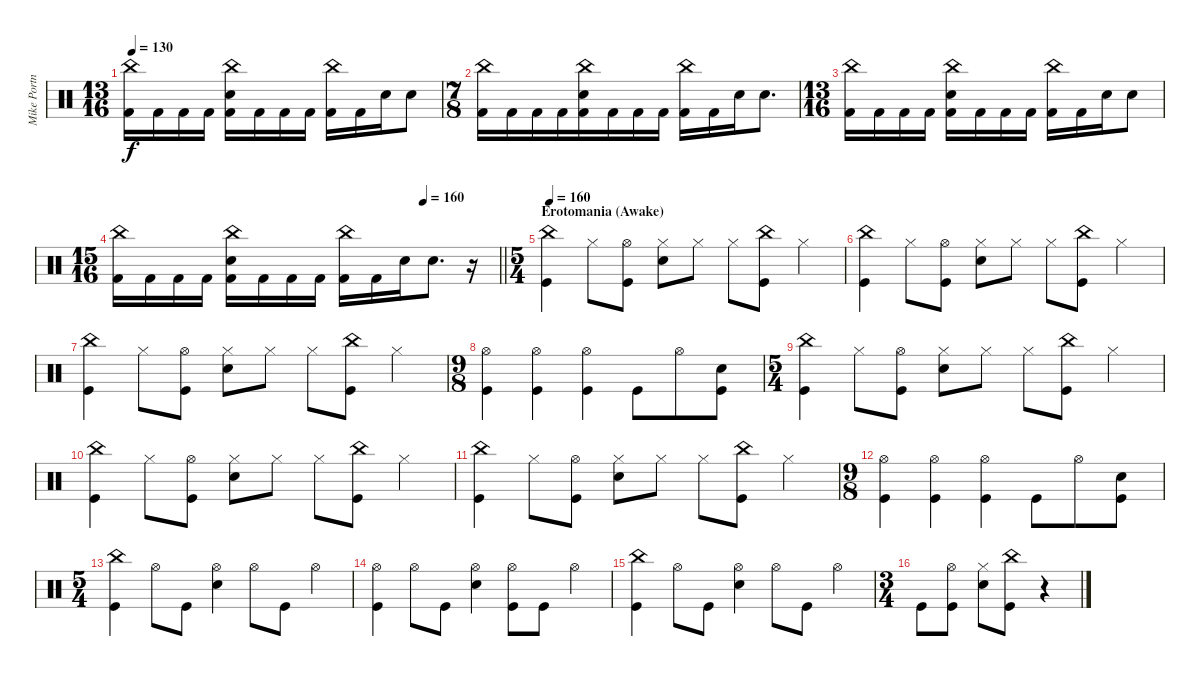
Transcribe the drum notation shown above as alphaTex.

\track ("Mike Portnoy Drums" "Mike Portn") {instrument percussion}
\staff {score}
\articulation defaults
\ts (13 16)
\tempo 130
\clef neutral
\ks c
("China (hit)" "Kick (hit) 2").16{dy f} "Kick (hit) 2".16 "Kick (hit) 2".16 "Kick (hit) 2".16 ("China (hit)" "Electric Snare (hit)" "Kick (hit) 2").16 "Kick (hit) 2".16 "Kick (hit) 2".16 "Kick (hit) 2".16 ("China (hit)" "Kick (hit) 2").16 "Kick (hit) 2".16 "Electric Snare (hit)".16 "Electric Snare (hit)".8 |
\ts (7 8)
("China (hit)" "Kick (hit) 2").16 "Kick (hit) 2".16 "Kick (hit) 2".16 "Kick (hit) 2".16 ("China (hit)" "Electric Snare (hit)" "Kick (hit) 2").16 "Kick (hit) 2".16 "Kick (hit) 2".16 "Kick (hit) 2".16 ("China (hit)" "Kick (hit) 2").16 "Kick (hit) 2".16 "Electric Snare (hit)".16 "Electric Snare (hit)".8{d} |
\ts (13 16)
("China (hit)" "Kick (hit) 2").16 "Kick (hit) 2".16 "Kick (hit) 2".16 "Kick (hit) 2".16 ("China (hit)" "Electric Snare (hit)" "Kick (hit) 2").16 "Kick (hit) 2".16 "Kick (hit) 2".16 "Kick (hit) 2".16 ("China (hit)" "Kick (hit) 2").16 "Kick (hit) 2".16 "Electric Snare (hit)".16 "Electric Snare (hit)".8 |
\ts (15 16)
\tempo (160 0.8)
\barLineRight lightlight
("China (hit)" "Kick (hit) 2").16 "Kick (hit) 2".16 "Kick (hit) 2".16 "Kick (hit) 2".16 ("China (hit)" "Electric Snare (hit)" "Kick (hit) 2").16 "Kick (hit) 2".16 "Kick (hit) 2".16 "Kick (hit) 2".16 ("China (hit)" "Kick (hit) 2").16 "Kick (hit) 2".16 "Electric Snare (hit)".16 "Electric Snare (hit)".8{d} r.16 |
\ts (5 4)
\section ("" "Erotomania (Awake)")
\tempo 160
("Kick (hit)" "China (hit)").4 "Hi-Hat (closed)".8 ("Kick (hit)" "Hi-Hat (open)").8 ("Snare (hit) 2" "Hi-Hat (closed)").8 "Hi-Hat (closed)".8 "Hi-Hat (closed)".8 ("Kick (hit)" "China (hit)").8 "Hi-Hat (closed)".4 |
("Kick (hit)" "China (hit)").4 "Hi-Hat (closed)".8 ("Kick (hit)" "Hi-Hat (open)").8 ("Snare (hit) 2" "Hi-Hat (closed)").8 "Hi-Hat (closed)".8 "Hi-Hat (closed)".8 ("Kick (hit)" "China (hit)").8 "Hi-Hat (closed)".4 |
("Kick (hit)" "China (hit)").4 "Hi-Hat (closed)".8 ("Kick (hit)" "Hi-Hat (open)").8 ("Snare (hit) 2" "Hi-Hat (closed)").8 "Hi-Hat (closed)".8 "Hi-Hat (closed)".8 ("Kick (hit)" "China (hit)").8 "Hi-Hat (closed)".4 |
\ts (9 8)
("Kick (hit)" "Hi-Hat (open)").4 ("Kick (hit)" "Hi-Hat (open)").4 ("Kick (hit)" "Hi-Hat (open)").4 "Kick (hit)".8 "Hi-Hat (open)".8 ("Kick (hit)" "Snare (hit) 2").8 |
\ts (5 4)
("Kick (hit)" "China (hit)").4 "Hi-Hat (closed)".8 ("Kick (hit)" "Hi-Hat (open)").8 ("Snare (hit) 2" "Hi-Hat (closed)").8 "Hi-Hat (closed)".8 "Hi-Hat (closed)".8 ("Kick (hit)" "China (hit)").8 "Hi-Hat (closed)".4 |
("Kick (hit)" "China (hit)").4 "Hi-Hat (closed)".8 ("Kick (hit)" "Hi-Hat (open)").8 ("Snare (hit) 2" "Hi-Hat (closed)").8 "Hi-Hat (closed)".8 "Hi-Hat (closed)".8 ("Kick (hit)" "China (hit)").8 "Hi-Hat (closed)".4 |
("Kick (hit)" "China (hit)").4 "Hi-Hat (closed)".8 ("Kick (hit)" "Hi-Hat (open)").8 ("Snare (hit) 2" "Hi-Hat (closed)").8 "Hi-Hat (closed)".8 "Hi-Hat (closed)".8 ("Kick (hit)" "China (hit)").8 "Hi-Hat (closed)".4 |
\ts (9 8)
("Kick (hit)" "Hi-Hat (open)").4 ("Kick (hit)" "Hi-Hat (open)").4 ("Kick (hit)" "Hi-Hat (open)").4 "Kick (hit)".8 "Hi-Hat (open)".8 ("Kick (hit)" "Snare (hit) 2").8 |
\ts (5 4)
("Kick (hit)" "China (hit)").4 "Hi-Hat (open)".8 "Kick (hit)".8 ("Snare (hit) 2" "Hi-Hat (open)").4 "Hi-Hat (open)".8 "Kick (hit)".8 "Hi-Hat (open)".4 |
("Kick (hit)" "Hi-Hat (open)").4 "Hi-Hat (open)".8 "Kick (hit)".8 ("Snare (hit) 2" "Hi-Hat (open)").4 ("Kick (hit)" "Hi-Hat (open)").8 "Kick (hit)".8 "Hi-Hat (open)".4 |
("Kick (hit)" "China (hit)").4 "Hi-Hat (open)".8 "Kick (hit)".8 ("Snare (hit) 2" "Hi-Hat (open)").4 "Hi-Hat (open)".8 "Kick (hit)".8 "Hi-Hat (open)".4 |
\ts (3 4)
"Kick (hit)".8 ("Kick (hit)" "Hi-Hat (open)").8 ("Snare (hit) 2" "Hi-Hat (closed)").8 ("Kick (hit)" "China (hit)").8 r.4
